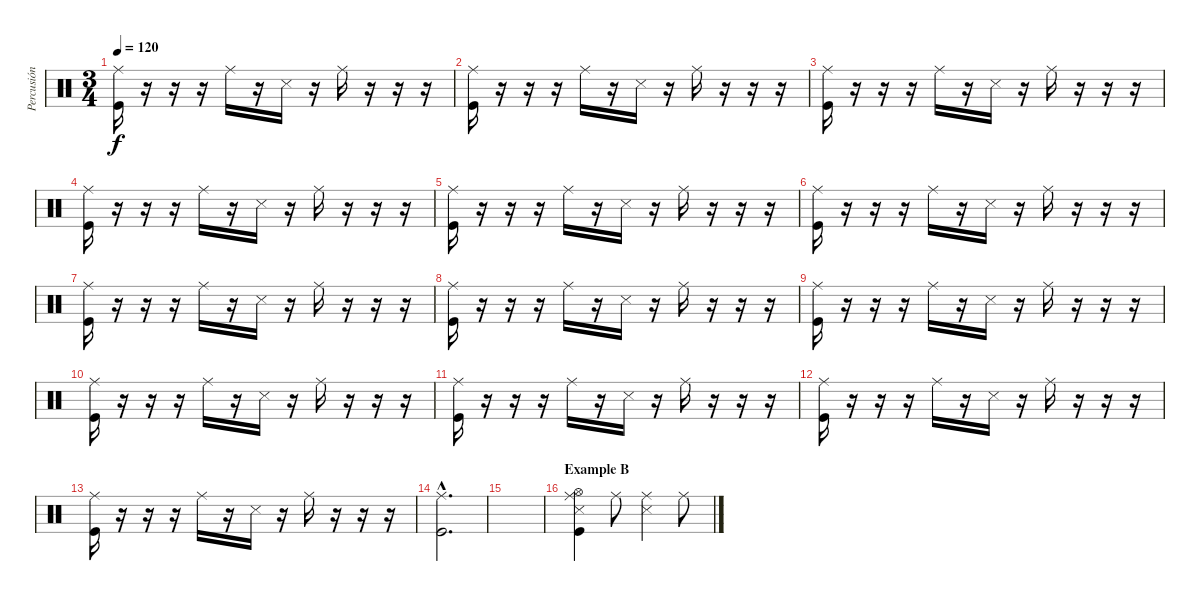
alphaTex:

\track ("Percusión" "Percusión") {instrument percussion}
\staff {score}
\articulation defaults
\ts (3 4)
\tempo 120
\clef neutral
\ks c
("Kick (hit)" "Ride (middle)").16{dy f} r.16 r.16 r.16 "Ride (middle)".16 r.16 "Snare (side stick) 3".16 r.16 "Ride (middle)".16 r.16 r.16 r.16 |
("Kick (hit)" "Ride (middle)").16 r.16 r.16 r.16 "Ride (middle)".16 r.16 "Snare (side stick) 3".16 r.16 "Ride (middle)".16 r.16 r.16 r.16 |
("Kick (hit)" "Ride (middle)").16 r.16 r.16 r.16 "Ride (middle)".16 r.16 "Snare (side stick) 3".16 r.16 "Ride (middle)".16 r.16 r.16 r.16 |
("Kick (hit)" "Ride (middle)").16 r.16 r.16 r.16 "Ride (middle)".16 r.16 "Snare (side stick) 3".16 r.16 "Ride (middle)".16 r.16 r.16 r.16 |
("Kick (hit)" "Ride (middle)").16 r.16 r.16 r.16 "Ride (middle)".16 r.16 "Snare (side stick) 3".16 r.16 "Ride (middle)".16 r.16 r.16 r.16 |
("Kick (hit)" "Ride (middle)").16 r.16 r.16 r.16 "Ride (middle)".16 r.16 "Snare (side stick) 3".16 r.16 "Ride (middle)".16 r.16 r.16 r.16 |
("Kick (hit)" "Ride (middle)").16 r.16 r.16 r.16 "Ride (middle)".16 r.16 "Snare (side stick) 3".16 r.16 "Ride (middle)".16 r.16 r.16 r.16 |
("Kick (hit)" "Ride (middle)").16 r.16 r.16 r.16 "Ride (middle)".16 r.16 "Snare (side stick) 3".16 r.16 "Ride (middle)".16 r.16 r.16 r.16 |
("Kick (hit)" "Ride (middle)").16 r.16 r.16 r.16 "Ride (middle)".16 r.16 "Snare (side stick) 3".16 r.16 "Ride (middle)".16 r.16 r.16 r.16 |
("Kick (hit)" "Ride (middle)").16 r.16 r.16 r.16 "Ride (middle)".16 r.16 "Snare (side stick) 3".16 r.16 "Ride (middle)".16 r.16 r.16 r.16 |
("Kick (hit)" "Ride (middle)").16 r.16 r.16 r.16 "Ride (middle)".16 r.16 "Snare (side stick) 3".16 r.16 "Ride (middle)".16 r.16 r.16 r.16 |
("Kick (hit)" "Ride (middle)").16 r.16 r.16 r.16 "Ride (middle)".16 r.16 "Snare (side stick) 3".16 r.16 "Ride (middle)".16 r.16 r.16 r.16 |
("Kick (hit)" "Ride (middle)").16 r.16 r.16 r.16 "Ride (middle)".16 r.16 "Snare (side stick) 3".16 r.16 "Ride (middle)".16 r.16 r.16 r.16 |
("Kick (hit)"{hac} "Ride (middle)"{hac}).2{d} |
|
\section ("" "Example B")
("Kick (hit)" "Hi-Hat (open)" "Snare (side stick) 3" "Ride (middle)").4 "Ride (middle)".8 ("Snare (side stick) 3" "Ride (middle)").4 "Ride (middle)".8
